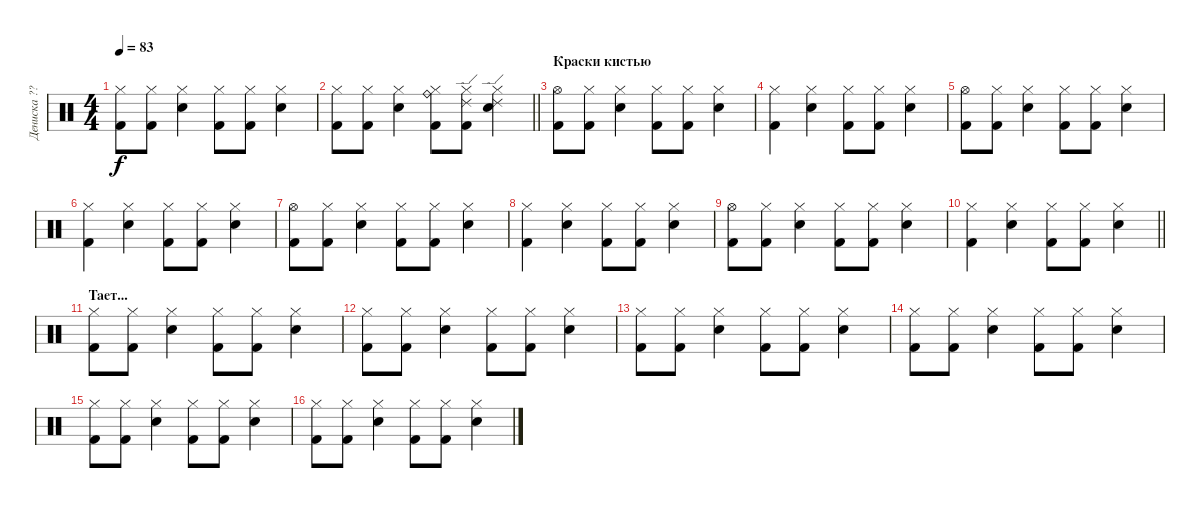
\track ("Дениска ??" "Дениска ??") {instrument percussion}
\staff {score}
\articulation defaults
\ts (4 4)
\tempo 83
\clef neutral
\ks c
("Hi-Hat (closed)" "Kick (hit) 2").8{dy f} ("Hi-Hat (closed)" "Kick (hit) 2").8 ("Hi-Hat (closed)" "Electric Snare (hit)").4 ("Hi-Hat (closed)" "Kick (hit) 2").8 ("Hi-Hat (closed)" "Kick (hit) 2").8 ("Hi-Hat (closed)" "Electric Snare (hit)").4 |
\barLineRight lightlight
("Hi-Hat (closed)" "Kick (hit) 2").8 ("Hi-Hat (closed)" "Kick (hit) 2").8 ("Hi-Hat (closed)" "Electric Snare (hit)").4 ("Hi-Hat (closed)" "Kick (hit) 2" "Ride (bell)").8 ("Hi-Hat (closed)" "Kick (hit) 2" "Ride (edge) 2").8 ("Hi-Hat (closed)" "Electric Snare (hit)" "Ride (edge) 2").4 |
\section ("" "Краски кистью")
("Hi-Hat (open)" "Kick (hit) 2").8 ("Hi-Hat (closed)" "Kick (hit) 2").8 ("Hi-Hat (closed)" "Electric Snare (hit)").4 ("Hi-Hat (closed)" "Kick (hit) 2").8 ("Hi-Hat (closed)" "Kick (hit) 2").8 ("Hi-Hat (closed)" "Electric Snare (hit)").4 |
("Kick (hit) 2" "Hi-Hat (closed)").4 ("Snare (hit) 2" "Hi-Hat (closed)").4 ("Kick (hit) 2" "Hi-Hat (closed)").8 ("Kick (hit) 2" "Hi-Hat (closed)").8 ("Snare (hit) 2" "Hi-Hat (closed)").4 |
("Hi-Hat (open)" "Kick (hit) 2").8 ("Hi-Hat (closed)" "Kick (hit) 2").8 ("Hi-Hat (closed)" "Electric Snare (hit)").4 ("Hi-Hat (closed)" "Kick (hit) 2").8 ("Hi-Hat (closed)" "Kick (hit) 2").8 ("Hi-Hat (closed)" "Electric Snare (hit)").4 |
("Kick (hit) 2" "Hi-Hat (closed)").4 ("Snare (hit) 2" "Hi-Hat (closed)").4 ("Kick (hit) 2" "Hi-Hat (closed)").8 ("Kick (hit) 2" "Hi-Hat (closed)").8 ("Snare (hit) 2" "Hi-Hat (closed)").4 |
("Hi-Hat (open)" "Kick (hit) 2").8 ("Hi-Hat (closed)" "Kick (hit) 2").8 ("Hi-Hat (closed)" "Electric Snare (hit)").4 ("Hi-Hat (closed)" "Kick (hit) 2").8 ("Hi-Hat (closed)" "Kick (hit) 2").8 ("Hi-Hat (closed)" "Electric Snare (hit)").4 |
("Kick (hit) 2" "Hi-Hat (closed)").4 ("Snare (hit) 2" "Hi-Hat (closed)").4 ("Kick (hit) 2" "Hi-Hat (closed)").8 ("Kick (hit) 2" "Hi-Hat (closed)").8 ("Snare (hit) 2" "Hi-Hat (closed)").4 |
("Hi-Hat (open)" "Kick (hit) 2").8 ("Hi-Hat (closed)" "Kick (hit) 2").8 ("Hi-Hat (closed)" "Electric Snare (hit)").4 ("Hi-Hat (closed)" "Kick (hit) 2").8 ("Hi-Hat (closed)" "Kick (hit) 2").8 ("Hi-Hat (closed)" "Electric Snare (hit)").4 |
\barLineRight lightlight
("Kick (hit) 2" "Hi-Hat (closed)").4 ("Snare (hit) 2" "Hi-Hat (closed)").4 ("Kick (hit) 2" "Hi-Hat (closed)").8 ("Kick (hit) 2" "Hi-Hat (closed)").8 ("Snare (hit) 2" "Hi-Hat (closed)").4 |
\section ("" "Тает...")
("Hi-Hat (closed)" "Kick (hit) 2").8 ("Hi-Hat (closed)" "Kick (hit) 2").8 ("Hi-Hat (closed)" "Electric Snare (hit)").4 ("Hi-Hat (closed)" "Kick (hit) 2").8 ("Hi-Hat (closed)" "Kick (hit) 2").8 ("Hi-Hat (closed)" "Electric Snare (hit)").4 |
("Hi-Hat (closed)" "Kick (hit) 2").8 ("Hi-Hat (closed)" "Kick (hit) 2").8 ("Hi-Hat (closed)" "Electric Snare (hit)").4 ("Hi-Hat (closed)" "Kick (hit) 2").8 ("Hi-Hat (closed)" "Kick (hit) 2").8 ("Hi-Hat (closed)" "Electric Snare (hit)").4 |
("Hi-Hat (closed)" "Kick (hit) 2").8 ("Hi-Hat (closed)" "Kick (hit) 2").8 ("Hi-Hat (closed)" "Electric Snare (hit)").4 ("Hi-Hat (closed)" "Kick (hit) 2").8 ("Hi-Hat (closed)" "Kick (hit) 2").8 ("Hi-Hat (closed)" "Electric Snare (hit)").4 |
("Hi-Hat (closed)" "Kick (hit) 2").8 ("Hi-Hat (closed)" "Kick (hit) 2").8 ("Hi-Hat (closed)" "Electric Snare (hit)").4 ("Hi-Hat (closed)" "Kick (hit) 2").8 ("Hi-Hat (closed)" "Kick (hit) 2").8 ("Hi-Hat (closed)" "Electric Snare (hit)").4 |
("Hi-Hat (closed)" "Kick (hit) 2").8 ("Hi-Hat (closed)" "Kick (hit) 2").8 ("Hi-Hat (closed)" "Electric Snare (hit)").4 ("Hi-Hat (closed)" "Kick (hit) 2").8 ("Hi-Hat (closed)" "Kick (hit) 2").8 ("Hi-Hat (closed)" "Electric Snare (hit)").4 |
("Hi-Hat (closed)" "Kick (hit) 2").8 ("Hi-Hat (closed)" "Kick (hit) 2").8 ("Hi-Hat (closed)" "Electric Snare (hit)").4 ("Hi-Hat (closed)" "Kick (hit) 2").8 ("Hi-Hat (closed)" "Kick (hit) 2").8 ("Hi-Hat (closed)" "Electric Snare (hit)").4
